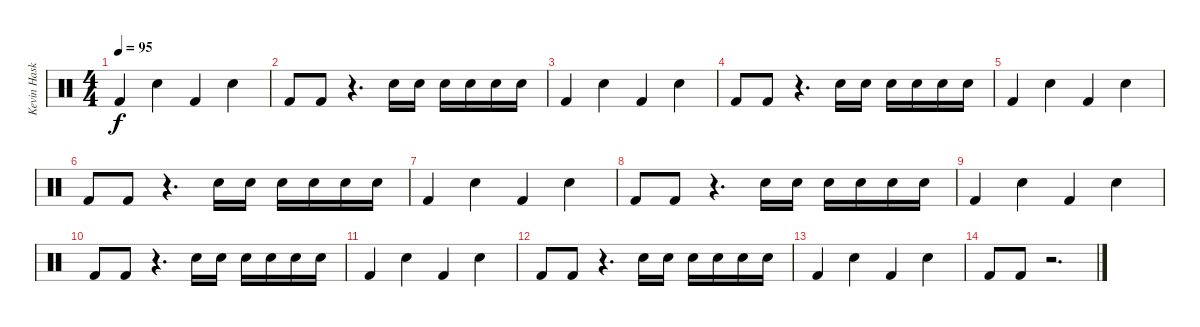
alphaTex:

\track ("Kevin Haskins" "Kevin Hask") {instrument percussion}
\staff {score}
\articulation defaults
\ts (4 4)
\tempo 95
\clef neutral
\ks c "Kick (hit) 2".4{dy f} "Electric Snare (hit)".4 "Kick (hit) 2".4 "Electric Snare (hit)".4
|
"Kick (hit) 2".8 "Kick (hit) 2".8 r.4{d} "Electric Snare (hit)".16 "Electric Snare (hit)".16 "Electric Snare (hit)".16 "Electric Snare (hit)".16 "Electric Snare (hit)".16 "Electric Snare (hit)".16 |
"Kick (hit) 2".4 "Electric Snare (hit)".4 "Kick (hit) 2".4 "Electric Snare (hit)".4 |
"Kick (hit) 2".8 "Kick (hit) 2".8 r.4{d} "Electric Snare (hit)".16 "Electric Snare (hit)".16 "Electric Snare (hit)".16 "Electric Snare (hit)".16 "Electric Snare (hit)".16 "Electric Snare (hit)".16 |
"Kick (hit) 2".4 "Electric Snare (hit)".4 "Kick (hit) 2".4 "Electric Snare (hit)".4 |
"Kick (hit) 2".8 "Kick (hit) 2".8 r.4{d} "Electric Snare (hit)".16 "Electric Snare (hit)".16 "Electric Snare (hit)".16 "Electric Snare (hit)".16 "Electric Snare (hit)".16 "Electric Snare (hit)".16 |
"Kick (hit) 2".4 "Electric Snare (hit)".4 "Kick (hit) 2".4 "Electric Snare (hit)".4 |
"Kick (hit) 2".8 "Kick (hit) 2".8 r.4{d} "Electric Snare (hit)".16 "Electric Snare (hit)".16 "Electric Snare (hit)".16 "Electric Snare (hit)".16 "Electric Snare (hit)".16 "Electric Snare (hit)".16 |
"Kick (hit) 2".4 "Electric Snare (hit)".4 "Kick (hit) 2".4 "Electric Snare (hit)".4 |
"Kick (hit) 2".8 "Kick (hit) 2".8 r.4{d} "Electric Snare (hit)".16 "Electric Snare (hit)".16 "Electric Snare (hit)".16 "Electric Snare (hit)".16 "Electric Snare (hit)".16 "Electric Snare (hit)".16 |
"Kick (hit) 2".4 "Electric Snare (hit)".4 "Kick (hit) 2".4 "Electric Snare (hit)".4 |
"Kick (hit) 2".8 "Kick (hit) 2".8 r.4{d} "Electric Snare (hit)".16 "Electric Snare (hit)".16 "Electric Snare (hit)".16 "Electric Snare (hit)".16 "Electric Snare (hit)".16 "Electric Snare (hit)".16 |
"Kick (hit) 2".4 "Electric Snare (hit)".4 "Kick (hit) 2".4 "Electric Snare (hit)".4 |
"Kick (hit) 2".8 "Kick (hit) 2".8 r.2{d}
